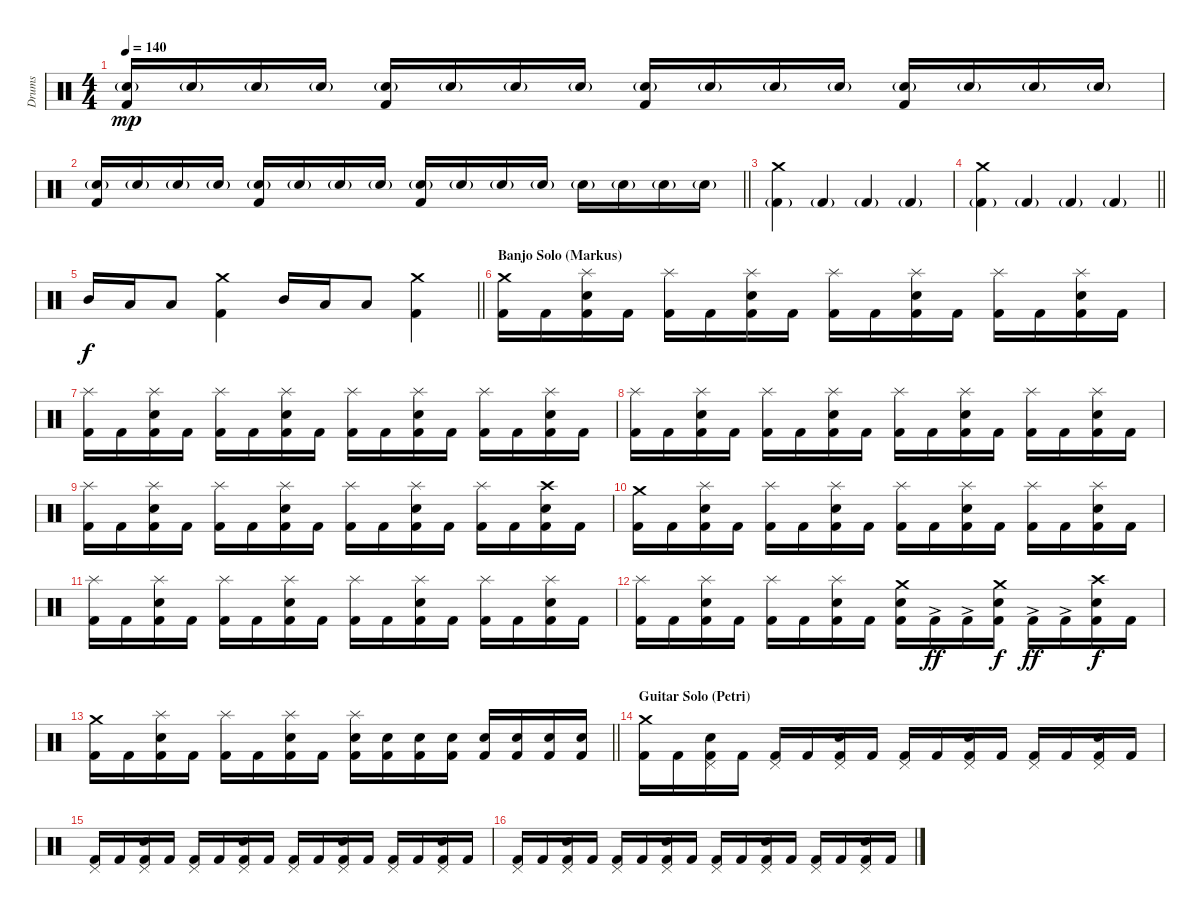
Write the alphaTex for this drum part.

\track ("Drums" "Drums") {instrument percussion}
\staff {score}
\articulation defaults
\ts (4 4)
\tempo 140
\clef neutral
\ks c
("Kick (hit) 2" "Snare (hit) 2"{g}).16{dy mp} "Snare (hit) 2"{g}.16 "Snare (hit) 2"{g}.16 "Snare (hit) 2"{g}.16 ("Kick (hit) 2" "Snare (hit) 2"{g}).16 "Snare (hit) 2"{g}.16 "Snare (hit) 2"{g}.16 "Snare (hit) 2"{g}.16 ("Kick (hit) 2" "Snare (hit) 2"{g}).16 "Snare (hit) 2"{g}.16 "Snare (hit) 2"{g}.16 "Snare (hit) 2"{g}.16 ("Kick (hit) 2" "Snare (hit) 2"{g}).16 "Snare (hit) 2"{g}.16 "Snare (hit) 2"{g}.16 "Snare (hit) 2"{g}.16 |
\barLineRight lightlight
("Kick (hit) 2" "Snare (hit) 2"{g}).16 "Snare (hit) 2"{g}.16 "Snare (hit) 2"{g}.16 "Snare (hit) 2"{g}.16 ("Kick (hit) 2" "Snare (hit) 2"{g}).16 "Snare (hit) 2"{g}.16 "Snare (hit) 2"{g}.16 "Snare (hit) 2"{g}.16 ("Kick (hit) 2" "Snare (hit) 2"{g}).16 "Snare (hit) 2"{g}.16 "Snare (hit) 2"{g}.16 "Snare (hit) 2"{g}.16 "Snare (hit) 2"{g}.16 "Snare (hit) 2"{g}.16 "Snare (hit) 2"{g}.16 "Snare (hit) 2"{g}.16 |
\section ("" "")
("Kick (hit) 2"{g} "Crash medium (hit)").4 "Kick (hit) 2"{g}.4 "Kick (hit) 2"{g}.4 "Kick (hit) 2"{g}.4 |
\barLineRight lightlight
("Kick (hit) 2"{g} "Crash medium (hit)").4 "Kick (hit) 2"{g}.4 "Kick (hit) 2"{g}.4 "Kick (hit) 2"{g}.4 |
\section ("" "")
\barLineRight lightlight "Mid Tom (hit)".16{dy f} "Low Tom (hit)".16 "Low Tom (hit)".8
("Kick (hit) 2" "Crash medium (hit)").4 "Mid Tom (hit)".16 "Low Tom (hit)".16 "Low Tom (hit)".8 ("Kick (hit) 2" "Crash medium (hit)").4 |
\section ("" "Banjo Solo (Markus)")
("Kick (hit) 2" "Crash medium (hit)").16 "Kick (hit) 2".16 ("Kick (hit) 2" "Snare (hit) 2" "Splash (hit)").16 "Kick (hit) 2".16 ("Kick (hit) 2" "Splash (hit)").16 "Kick (hit) 2".16 ("Kick (hit) 2" "Snare (hit) 2" "Splash (hit)").16 "Kick (hit) 2".16 ("Kick (hit) 2" "Splash (hit)").16 "Kick (hit) 2".16 ("Kick (hit) 2" "Snare (hit) 2" "Splash (hit)").16 "Kick (hit) 2".16 ("Kick (hit) 2" "Splash (hit)").16 "Kick (hit) 2".16 ("Kick (hit) 2" "Snare (hit) 2" "Splash (hit)").16 "Kick (hit) 2".16 |
("Kick (hit) 2" "Splash (hit)").16 "Kick (hit) 2".16 ("Kick (hit) 2" "Snare (hit) 2" "Splash (hit)").16 "Kick (hit) 2".16 ("Kick (hit) 2" "Splash (hit)").16 "Kick (hit) 2".16 ("Kick (hit) 2" "Snare (hit) 2" "Splash (hit)").16 "Kick (hit) 2".16 ("Kick (hit) 2" "Splash (hit)").16 "Kick (hit) 2".16 ("Kick (hit) 2" "Snare (hit) 2" "Splash (hit)").16 "Kick (hit) 2".16 ("Kick (hit) 2" "Splash (hit)").16 "Kick (hit) 2".16 ("Kick (hit) 2" "Snare (hit) 2" "Splash (hit)").16 "Kick (hit) 2".16 |
("Kick (hit) 2" "Splash (hit)").16 "Kick (hit) 2".16 ("Kick (hit) 2" "Snare (hit) 2" "Splash (hit)").16 "Kick (hit) 2".16 ("Kick (hit) 2" "Splash (hit)").16 "Kick (hit) 2".16 ("Kick (hit) 2" "Snare (hit) 2" "Splash (hit)").16 "Kick (hit) 2".16 ("Kick (hit) 2" "Splash (hit)").16 "Kick (hit) 2".16 ("Kick (hit) 2" "Snare (hit) 2" "Splash (hit)").16 "Kick (hit) 2".16 ("Kick (hit) 2" "Splash (hit)").16 "Kick (hit) 2".16 ("Kick (hit) 2" "Snare (hit) 2" "Splash (hit)").16 "Kick (hit) 2".16 |
("Kick (hit) 2" "Splash (hit)").16 "Kick (hit) 2".16 ("Kick (hit) 2" "Snare (hit) 2" "Splash (hit)").16 "Kick (hit) 2".16 ("Kick (hit) 2" "Splash (hit)").16 "Kick (hit) 2".16 ("Kick (hit) 2" "Snare (hit) 2" "Splash (hit)").16 "Kick (hit) 2".16 ("Kick (hit) 2" "Splash (hit)").16 "Kick (hit) 2".16 ("Kick (hit) 2" "Snare (hit) 2" "Splash (hit)").16 "Kick (hit) 2".16 ("Kick (hit) 2" "Splash (hit)").16 "Kick (hit) 2".16 ("Kick (hit) 2" "Snare (hit) 2" "Crash high (hit)").16 "Kick (hit) 2".16 |
("Kick (hit) 2" "Crash medium (hit)").16 "Kick (hit) 2".16 ("Kick (hit) 2" "Snare (hit) 2" "Splash (hit)").16 "Kick (hit) 2".16 ("Kick (hit) 2" "Splash (hit)").16 "Kick (hit) 2".16 ("Kick (hit) 2" "Snare (hit) 2" "Splash (hit)").16 "Kick (hit) 2".16 ("Kick (hit) 2" "Splash (hit)").16 "Kick (hit) 2".16 ("Kick (hit) 2" "Snare (hit) 2" "Splash (hit)").16 "Kick (hit) 2".16 ("Kick (hit) 2" "Splash (hit)").16 "Kick (hit) 2".16 ("Kick (hit) 2" "Snare (hit) 2" "Splash (hit)").16 "Kick (hit) 2".16 |
("Kick (hit) 2" "Splash (hit)").16 "Kick (hit) 2".16 ("Kick (hit) 2" "Snare (hit) 2" "Splash (hit)").16 "Kick (hit) 2".16 ("Kick (hit) 2" "Splash (hit)").16 "Kick (hit) 2".16 ("Kick (hit) 2" "Snare (hit) 2" "Splash (hit)").16 "Kick (hit) 2".16 ("Kick (hit) 2" "Splash (hit)").16 "Kick (hit) 2".16 ("Kick (hit) 2" "Snare (hit) 2" "Splash (hit)").16 "Kick (hit) 2".16 ("Kick (hit) 2" "Splash (hit)").16 "Kick (hit) 2".16 ("Kick (hit) 2" "Snare (hit) 2" "Splash (hit)").16 "Kick (hit) 2".16 |
("Kick (hit) 2" "Splash (hit)").16 "Kick (hit) 2".16 ("Kick (hit) 2" "Snare (hit) 2" "Splash (hit)").16 "Kick (hit) 2".16 ("Kick (hit) 2" "Splash (hit)").16 "Kick (hit) 2".16 ("Kick (hit) 2" "Snare (hit) 2" "Splash (hit)").16 "Kick (hit) 2".16 ("Kick (hit) 2" "Snare (hit) 2" "Crash medium (hit)").16 "Kick (hit) 2"{ac}.16{dy ff} "Kick (hit) 2"{ac}.16 ("Kick (hit) 2" "Snare (hit) 2" "Crash medium (hit)").16{dy f} "Kick (hit) 2"{ac}.16{dy ff} "Kick (hit) 2"{ac}.16 ("Kick (hit) 2" "Snare (hit) 2" "Crash high (hit)").16{dy f} "Kick (hit) 2".16 |
\barLineRight lightlight
("Kick (hit) 2" "Crash medium (hit)").16 "Kick (hit) 2".16 ("Kick (hit) 2" "Snare (hit) 2" "Splash (hit)").16 "Kick (hit) 2".16 ("Kick (hit) 2" "Splash (hit)").16 "Kick (hit) 2".16 ("Kick (hit) 2" "Snare (hit) 2" "Splash (hit)").16 "Kick (hit) 2".16 ("Kick (hit) 2" "Snare (hit) 2" "Splash (hit)").16 ("Kick (hit) 2" "Snare (hit) 2").16 ("Kick (hit) 2" "Snare (hit) 2").16 ("Kick (hit) 2" "Snare (hit) 2").16 ("Kick (hit) 2" "Snare (hit) 2").16 ("Kick (hit) 2" "Snare (hit) 2").16 ("Kick (hit) 2" "Snare (hit) 2").16 ("Kick (hit) 2" "Snare (hit) 2").16 |
\section ("" "Guitar Solo (Petri)")
("Kick (hit) 2" "Crash medium (hit)").16 "Kick (hit) 2".16 ("Kick (hit) 2" "Snare (hit) 2" "Pedal Hi-Hat (hit)").16 "Kick (hit) 2".16 ("Kick (hit) 2" "Pedal Hi-Hat (hit)").16 "Kick (hit) 2".16 ("Kick (hit) 2" "Snare (hit) 2" "Pedal Hi-Hat (hit)").16 "Kick (hit) 2".16 ("Kick (hit) 2" "Pedal Hi-Hat (hit)").16 "Kick (hit) 2".16 ("Kick (hit) 2" "Snare (hit) 2" "Pedal Hi-Hat (hit)").16 "Kick (hit) 2".16 ("Kick (hit) 2" "Pedal Hi-Hat (hit)").16 "Kick (hit) 2".16 ("Kick (hit) 2" "Snare (hit) 2" "Pedal Hi-Hat (hit)").16 "Kick (hit) 2".16 |
("Kick (hit) 2" "Pedal Hi-Hat (hit)").16 "Kick (hit) 2".16 ("Kick (hit) 2" "Snare (hit) 2" "Pedal Hi-Hat (hit)").16 "Kick (hit) 2".16 ("Kick (hit) 2" "Pedal Hi-Hat (hit)").16 "Kick (hit) 2".16 ("Kick (hit) 2" "Snare (hit) 2" "Pedal Hi-Hat (hit)").16 "Kick (hit) 2".16 ("Kick (hit) 2" "Pedal Hi-Hat (hit)").16 "Kick (hit) 2".16 ("Kick (hit) 2" "Snare (hit) 2" "Pedal Hi-Hat (hit)").16 "Kick (hit) 2".16 ("Kick (hit) 2" "Pedal Hi-Hat (hit)").16 "Kick (hit) 2".16 ("Kick (hit) 2" "Snare (hit) 2" "Pedal Hi-Hat (hit)").16 "Kick (hit) 2".16 |
("Kick (hit) 2" "Pedal Hi-Hat (hit)").16 "Kick (hit) 2".16 ("Kick (hit) 2" "Snare (hit) 2" "Pedal Hi-Hat (hit)").16 "Kick (hit) 2".16 ("Kick (hit) 2" "Pedal Hi-Hat (hit)").16 "Kick (hit) 2".16 ("Kick (hit) 2" "Snare (hit) 2" "Pedal Hi-Hat (hit)").16 "Kick (hit) 2".16 ("Kick (hit) 2" "Pedal Hi-Hat (hit)").16 "Kick (hit) 2".16 ("Kick (hit) 2" "Snare (hit) 2" "Pedal Hi-Hat (hit)").16 "Kick (hit) 2".16 ("Kick (hit) 2" "Pedal Hi-Hat (hit)").16 "Kick (hit) 2".16 ("Kick (hit) 2" "Snare (hit) 2" "Pedal Hi-Hat (hit)").16 "Kick (hit) 2".16
